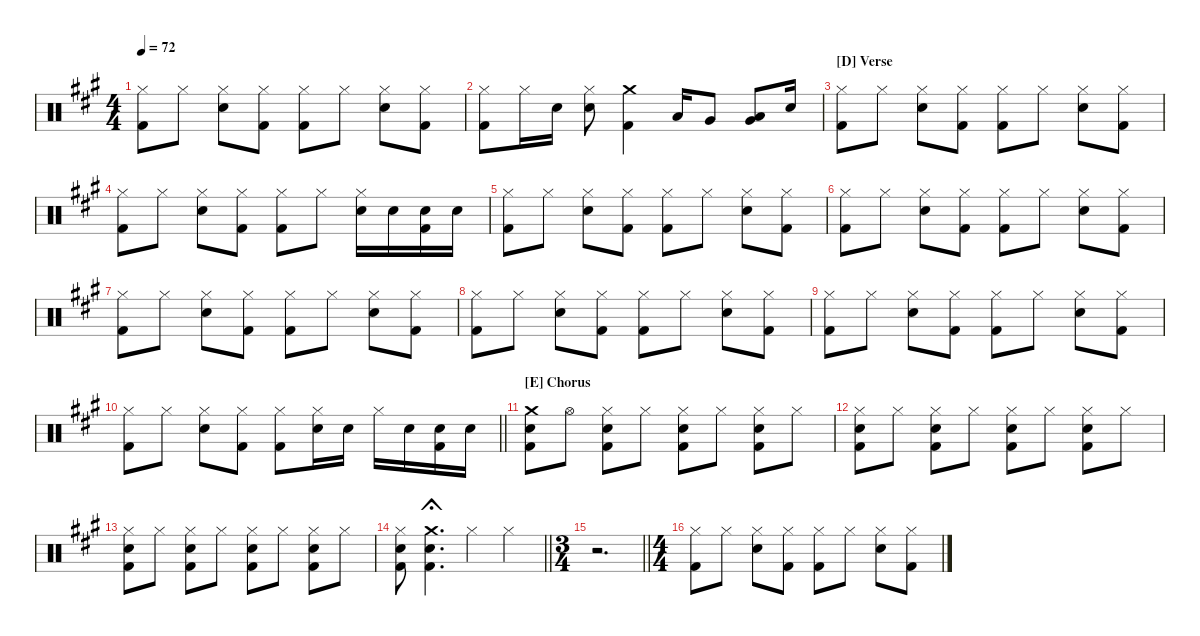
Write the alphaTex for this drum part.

\hideDynamics
\bracketExtendMode nobrackets
\singleTrackTrackNamePolicy hidden
\multiTrackTrackNamePolicy hidden
\otherSystemsTrackNameOrientation horizontal
\track ("Drumkit" "Drums") {defaultSystemsLayout 4 instrument percussion}
\staff {score}
\articulation defaults
\ts (4 4)
\beaming (8 2 2 2 2)
\tempo 72
\clef neutral
\ks a
("Hi-Hat (closed)"{acc forcenatural} "Kick (hit) 2"{acc forcenatural}).8{dy mf beam Down} "Hi-Hat (closed)"{acc forcenatural}.8{beam Down} ("Hi-Hat (closed)"{acc forcenatural} "Snare (hit) 2"{acc forcenatural}).8{beam Down} ("Hi-Hat (closed)"{acc forcenatural} "Kick (hit) 2"{acc forcenatural}).8{beam Down} ("Hi-Hat (closed)"{acc forcenatural} "Kick (hit) 2"{acc forcenatural}).8{beam Down} "Hi-Hat (closed)"{acc forcenatural}.8{beam Down} ("Hi-Hat (closed)"{acc forcenatural} "Snare (hit) 2"{acc forcenatural}).8{beam Down} ("Hi-Hat (closed)"{acc forcenatural} "Kick (hit) 2"{acc forcenatural}).8{beam Down} |
("Hi-Hat (closed)"{acc forcenatural} "Kick (hit) 2"{acc forcenatural}).8{beam Down} "Hi-Hat (closed)"{acc forcenatural}.16{beam Down} "Snare (hit) 2"{acc forcenatural}.16{beam Down} ("Hi-Hat (closed)"{acc forcenatural} "Snare (hit) 2"{acc forcenatural}).8{beam Down} ("Crash medium (hit)"{acc forcenatural} "Kick (hit) 2"{acc forcenatural}).4{beam Down} "Low Tom (hit)"{acc forcenatural}.16{dy ff beam Up} "Very Low Tom (hit)"{acc forcenatural}.8{beam Up} ("Low Tom (hit)"{acc forcenatural} "Very Low Tom (hit)"{acc forcenatural}).8{beam Up} "Snare (hit) 2"{acc forcenatural}.16{dy mf beam Up} |
\section ("D" "Verse")
("Hi-Hat (closed)"{acc forcenatural} "Kick (hit) 2"{acc forcenatural}).8{beam Down} "Hi-Hat (closed)"{acc forcenatural}.8{beam Down} ("Hi-Hat (closed)"{acc forcenatural} "Snare (hit) 2"{acc forcenatural}).8{beam Down} ("Hi-Hat (closed)"{acc forcenatural} "Kick (hit) 2"{acc forcenatural}).8{beam Down} ("Hi-Hat (closed)"{acc forcenatural} "Kick (hit) 2"{acc forcenatural}).8{beam Down} "Hi-Hat (closed)"{acc forcenatural}.8{beam Down} ("Hi-Hat (closed)"{acc forcenatural} "Snare (hit) 2"{acc forcenatural}).8{beam Down} ("Hi-Hat (closed)"{acc forcenatural} "Kick (hit) 2"{acc forcenatural}).8{beam Down} |
("Kick (hit) 2"{acc forcenatural} "Hi-Hat (closed)"{acc forcenatural}).8{beam Down} "Hi-Hat (closed)"{acc forcenatural}.8{beam Down} ("Snare (hit) 2"{acc forcenatural} "Hi-Hat (closed)"{acc forcenatural}).8{beam Down} ("Kick (hit) 2"{acc forcenatural} "Hi-Hat (closed)"{acc forcenatural}).8{beam Down} ("Kick (hit) 2"{acc forcenatural} "Hi-Hat (closed)"{acc forcenatural}).8{beam Down} "Hi-Hat (closed)"{acc forcenatural}.8{beam Down} ("Snare (hit) 2"{acc forcenatural} "Hi-Hat (closed)"{acc forcenatural}).16{beam Down} "Snare (hit) 2"{acc forcenatural}.16{beam Down} ("Snare (hit) 2"{acc forcenatural} "Kick (hit) 2"{acc forcenatural}).16{beam Down} "Snare (hit) 2"{acc forcenatural}.16{beam Down} |
("Hi-Hat (closed)"{acc forcenatural} "Kick (hit) 2"{acc forcenatural}).8{beam Down} "Hi-Hat (closed)"{acc forcenatural}.8{beam Down} ("Hi-Hat (closed)"{acc forcenatural} "Snare (hit) 2"{acc forcenatural}).8{beam Down} ("Hi-Hat (closed)"{acc forcenatural} "Kick (hit) 2"{acc forcenatural}).8{beam Down} ("Hi-Hat (closed)"{acc forcenatural} "Kick (hit) 2"{acc forcenatural}).8{beam Down} "Hi-Hat (closed)"{acc forcenatural}.8{beam Down} ("Hi-Hat (closed)"{acc forcenatural} "Snare (hit) 2"{acc forcenatural}).8{beam Down} ("Hi-Hat (closed)"{acc forcenatural} "Kick (hit) 2"{acc forcenatural}).8{beam Down} |
("Hi-Hat (closed)"{acc forcenatural} "Kick (hit) 2"{acc forcenatural}).8{beam Down} "Hi-Hat (closed)"{acc forcenatural}.8{beam Down} ("Hi-Hat (closed)"{acc forcenatural} "Snare (hit) 2"{acc forcenatural}).8{beam Down} ("Hi-Hat (closed)"{acc forcenatural} "Kick (hit) 2"{acc forcenatural}).8{beam Down} ("Hi-Hat (closed)"{acc forcenatural} "Kick (hit) 2"{acc forcenatural}).8{beam Down} "Hi-Hat (closed)"{acc forcenatural}.8{beam Down} ("Hi-Hat (closed)"{acc forcenatural} "Snare (hit) 2"{acc forcenatural}).8{beam Down} ("Hi-Hat (closed)"{acc forcenatural} "Kick (hit) 2"{acc forcenatural}).8{beam Down} |
("Hi-Hat (closed)"{acc forcenatural} "Kick (hit) 2"{acc forcenatural}).8{beam Down} "Hi-Hat (closed)"{acc forcenatural}.8{beam Down} ("Hi-Hat (closed)"{acc forcenatural} "Snare (hit) 2"{acc forcenatural}).8{beam Down} ("Hi-Hat (closed)"{acc forcenatural} "Kick (hit) 2"{acc forcenatural}).8{beam Down} ("Hi-Hat (closed)"{acc forcenatural} "Kick (hit) 2"{acc forcenatural}).8{beam Down} "Hi-Hat (closed)"{acc forcenatural}.8{beam Down} ("Hi-Hat (closed)"{acc forcenatural} "Snare (hit) 2"{acc forcenatural}).8{beam Down} ("Hi-Hat (closed)"{acc forcenatural} "Kick (hit) 2"{acc forcenatural}).8{beam Down} |
("Hi-Hat (closed)"{acc forcenatural} "Kick (hit) 2"{acc forcenatural}).8{beam Down} "Hi-Hat (closed)"{acc forcenatural}.8{beam Down} ("Hi-Hat (closed)"{acc forcenatural} "Snare (hit) 2"{acc forcenatural}).8{beam Down} ("Hi-Hat (closed)"{acc forcenatural} "Kick (hit) 2"{acc forcenatural}).8{beam Down} ("Hi-Hat (closed)"{acc forcenatural} "Kick (hit) 2"{acc forcenatural}).8{beam Down} "Hi-Hat (closed)"{acc forcenatural}.8{beam Down} ("Hi-Hat (closed)"{acc forcenatural} "Snare (hit) 2"{acc forcenatural}).8{beam Down} ("Hi-Hat (closed)"{acc forcenatural} "Kick (hit) 2"{acc forcenatural}).8{beam Down} |
("Hi-Hat (closed)"{acc forcenatural} "Kick (hit) 2"{acc forcenatural}).8{beam Down} "Hi-Hat (closed)"{acc forcenatural}.8{beam Down} ("Hi-Hat (closed)"{acc forcenatural} "Snare (hit) 2"{acc forcenatural}).8{beam Down} ("Hi-Hat (closed)"{acc forcenatural} "Kick (hit) 2"{acc forcenatural}).8{beam Down} ("Hi-Hat (closed)"{acc forcenatural} "Kick (hit) 2"{acc forcenatural}).8{beam Down} "Hi-Hat (closed)"{acc forcenatural}.8{beam Down} ("Hi-Hat (closed)"{acc forcenatural} "Snare (hit) 2"{acc forcenatural}).8{beam Down} ("Hi-Hat (closed)"{acc forcenatural} "Kick (hit) 2"{acc forcenatural}).8{beam Down} |
\barLineRight lightlight
("Kick (hit) 2"{acc forcenatural} "Hi-Hat (closed)"{acc forcenatural}).8{beam Down} "Hi-Hat (closed)"{acc forcenatural}.8{beam Down} ("Snare (hit) 2"{acc forcenatural} "Hi-Hat (closed)"{acc forcenatural}).8{beam Down} ("Kick (hit) 2"{acc forcenatural} "Hi-Hat (closed)"{acc forcenatural}).8{beam Down} ("Kick (hit) 2"{acc forcenatural} "Hi-Hat (closed)"{acc forcenatural}).8{beam Down} ("Snare (hit) 2"{acc forcenatural} "Hi-Hat (closed)"{acc forcenatural}).16{beam Down} "Snare (hit) 2"{acc forcenatural}.16{beam Down} "Hi-Hat (closed)"{acc forcenatural}.16{beam Down} "Snare (hit) 2"{acc forcenatural}.16{beam Down} ("Snare (hit) 2"{acc forcenatural} "Kick (hit) 2"{acc forcenatural}).16{beam Down} "Snare (hit) 2"{acc forcenatural}.16{beam Down} |
\section ("E" "Chorus")
("Snare (hit) 2"{acc forcenatural} "Crash medium (hit)"{acc forcenatural} "Kick (hit) 2"{acc forcenatural}).8{beam Down} "Hi-Hat (open)"{acc forcenatural}.8{beam Down} ("Kick (hit) 2"{acc forcenatural} "Hi-Hat (closed)"{acc forcenatural} "Snare (hit) 2"{acc forcenatural}).8{beam Down} "Hi-Hat (closed)"{acc forcenatural}.8{beam Down} ("Kick (hit) 2"{acc forcenatural} "Snare (hit) 2"{acc forcenatural} "Hi-Hat (closed)"{acc forcenatural}).8{beam Down} "Hi-Hat (closed)"{acc forcenatural}.8{beam Down} ("Kick (hit) 2"{acc forcenatural} "Snare (hit) 2"{acc forcenatural} "Hi-Hat (closed)"{acc forcenatural}).8{beam Down} "Hi-Hat (closed)"{acc forcenatural}.8{beam Down} |
("Hi-Hat (closed)"{acc forcenatural} "Snare (hit) 2"{acc forcenatural} "Kick (hit) 2"{acc forcenatural}).8{beam Down} "Hi-Hat (closed)"{acc forcenatural}.8{beam Down} ("Kick (hit) 2"{acc forcenatural} "Hi-Hat (closed)"{acc forcenatural} "Snare (hit) 2"{acc forcenatural}).8{beam Down} "Hi-Hat (closed)"{acc forcenatural}.8{beam Down} ("Kick (hit) 2"{acc forcenatural} "Snare (hit) 2"{acc forcenatural} "Hi-Hat (closed)"{acc forcenatural}).8{beam Down} "Hi-Hat (closed)"{acc forcenatural}.8{beam Down} ("Kick (hit) 2"{acc forcenatural} "Snare (hit) 2"{acc forcenatural} "Hi-Hat (closed)"{acc forcenatural}).8{beam Down} "Hi-Hat (closed)"{acc forcenatural}.8{beam Down} |
("Hi-Hat (closed)"{acc forcenatural} "Snare (hit) 2"{acc forcenatural} "Kick (hit) 2"{acc forcenatural}).8{beam Down} "Hi-Hat (closed)"{acc forcenatural}.8{beam Down} ("Kick (hit) 2"{acc forcenatural} "Hi-Hat (closed)"{acc forcenatural} "Snare (hit) 2"{acc forcenatural}).8{beam Down} "Hi-Hat (closed)"{acc forcenatural}.8{beam Down} ("Kick (hit) 2"{acc forcenatural} "Snare (hit) 2"{acc forcenatural} "Hi-Hat (closed)"{acc forcenatural}).8{beam Down} "Hi-Hat (closed)"{acc forcenatural}.8{beam Down} ("Kick (hit) 2"{acc forcenatural} "Snare (hit) 2"{acc forcenatural} "Hi-Hat (closed)"{acc forcenatural}).8{beam Down} "Hi-Hat (closed)"{acc forcenatural}.8{beam Down} |
\barLineRight lightlight
("Hi-Hat (closed)"{acc forcenatural} "Snare (hit) 2"{acc forcenatural} "Kick (hit) 2"{acc forcenatural}).8{beam Down} ("Snare (hit) 2"{acc forcenatural} "Kick (hit) 2"{acc forcenatural} "Crash medium (hit)"{acc forcenatural}).4{d fermata (short 0) beam Down} "Hi-Hat (closed)"{acc forcenatural}.4{beam Down} "Hi-Hat (closed)"{acc forcenatural}.4{beam Down} |
\ts (3 4)
\beaming (8 2 2 2)
\barLineRight lightlight
r.2{d beam Down} |
\ts (4 4)
\beaming (8 2 2 2 2)
("Hi-Hat (closed)"{acc forcenatural} "Kick (hit) 2"{acc forcenatural}).8{beam Down} "Hi-Hat (closed)"{acc forcenatural}.8{beam Down} ("Hi-Hat (closed)"{acc forcenatural} "Snare (hit) 2"{acc forcenatural}).8{beam Down} ("Hi-Hat (closed)"{acc forcenatural} "Kick (hit) 2"{acc forcenatural}).8{beam Down} ("Hi-Hat (closed)"{acc forcenatural} "Kick (hit) 2"{acc forcenatural}).8{beam Down} "Hi-Hat (closed)"{acc forcenatural}.8{beam Down} ("Hi-Hat (closed)"{acc forcenatural} "Snare (hit) 2"{acc forcenatural}).8{beam Down} ("Hi-Hat (closed)"{acc forcenatural} "Kick (hit) 2"{acc forcenatural}).8{beam Down}
